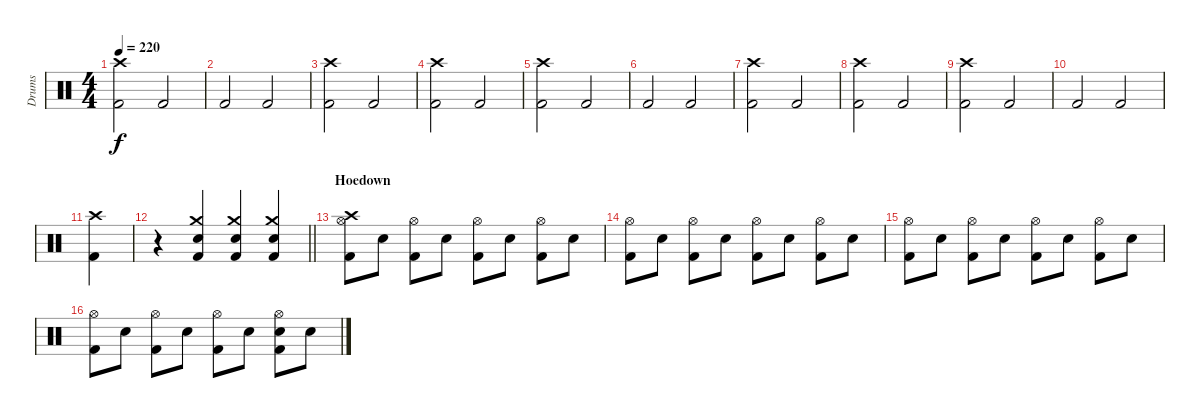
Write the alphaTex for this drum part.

\track ("Drums" "Drums") {instrument percussion}
\staff {score}
\articulation defaults
\ts (4 4)
\tempo 220
\clef neutral
\ks c
("Crash high (hit)" "Kick (hit) 2").2{dy f} "Kick (hit) 2".2 |
"Kick (hit) 2".2 "Kick (hit) 2".2 |
("Crash high (hit)" "Kick (hit) 2").2 "Kick (hit) 2".2 |
("Crash high (hit)" "Kick (hit) 2").2 "Kick (hit) 2".2 |
("Crash high (hit)" "Kick (hit) 2").2 "Kick (hit) 2".2 |
"Kick (hit) 2".2 "Kick (hit) 2".2 |
("Crash high (hit)" "Kick (hit) 2").2 "Kick (hit) 2".2 |
("Crash high (hit)" "Kick (hit) 2").2 "Kick (hit) 2".2 |
("Crash high (hit)" "Kick (hit) 2").2 "Kick (hit) 2".2 |
"Kick (hit) 2".2 "Kick (hit) 2".2 |
("Crash high (hit)" "Kick (hit) 2").4 |
\barLineRight lightlight
r.4 ("Crash medium (hit)" "Snare (hit) 2" "Kick (hit) 2").4 ("Crash medium (hit)" "Snare (hit) 2" "Kick (hit) 2").4 ("Crash medium (hit)" "Snare (hit) 2" "Kick (hit) 2").4 |
\section ("" "Hoedown")
("Crash high (hit)" "Hi-Hat (open)" "Kick (hit) 2").8 "Snare (hit) 2".8 ("Hi-Hat (open)" "Kick (hit) 2").8 "Snare (hit) 2".8 ("Hi-Hat (open)" "Kick (hit) 2").8 "Snare (hit) 2".8 ("Hi-Hat (open)" "Kick (hit) 2").8 "Snare (hit) 2".8 |
("Hi-Hat (open)" "Kick (hit) 2").8 "Snare (hit) 2".8 ("Hi-Hat (open)" "Kick (hit) 2").8 "Snare (hit) 2".8 ("Hi-Hat (open)" "Kick (hit) 2").8 "Snare (hit) 2".8 ("Hi-Hat (open)" "Kick (hit) 2").8 "Snare (hit) 2".8 |
("Hi-Hat (open)" "Kick (hit) 2").8 "Snare (hit) 2".8 ("Hi-Hat (open)" "Kick (hit) 2").8 "Snare (hit) 2".8 ("Hi-Hat (open)" "Kick (hit) 2").8 "Snare (hit) 2".8 ("Hi-Hat (open)" "Kick (hit) 2").8 "Snare (hit) 2".8 |
("Hi-Hat (open)" "Kick (hit) 2").8 "Snare (hit) 2".8 ("Hi-Hat (open)" "Kick (hit) 2").8 "Snare (hit) 2".8 ("Hi-Hat (open)" "Kick (hit) 2").8 "Snare (hit) 2".8 ("Hi-Hat (open)" "Snare (hit) 2" "Kick (hit) 2").8 "Snare (hit) 2".8
